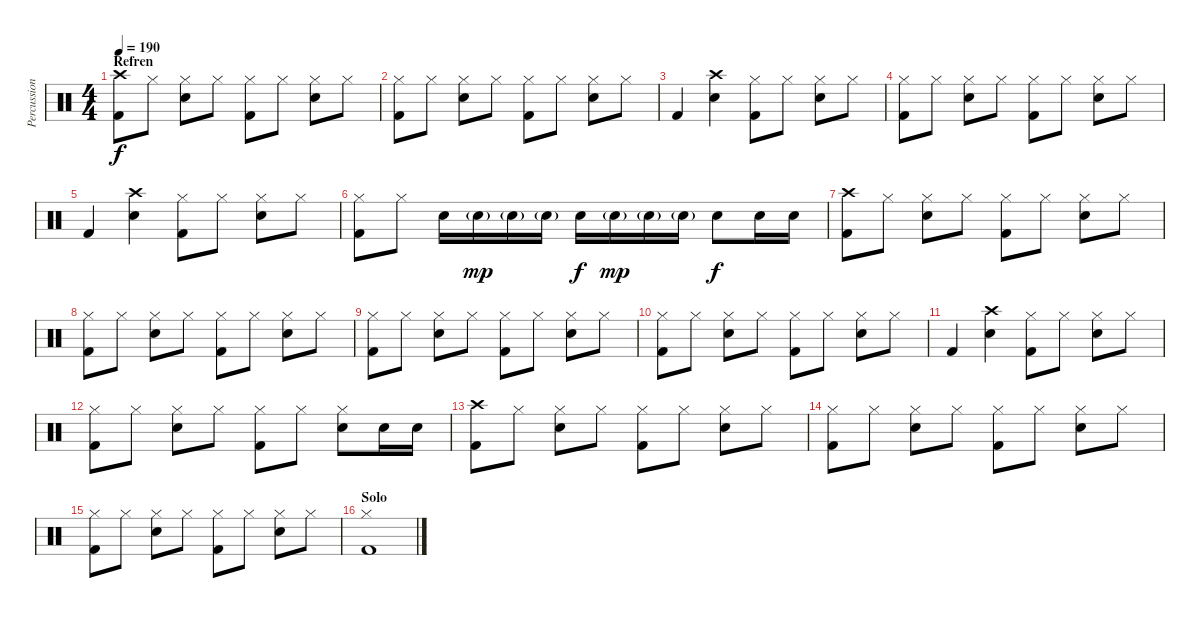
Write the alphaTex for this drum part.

\track ("Percussion" "Percussion") {instrument percussion}
\staff {score}
\articulation defaults
\ts (4 4)
\section ("" "Refren")
\tempo 190
\clef neutral
\ks c
("Crash high (hit)" "Kick (hit) 2").8{dy f} "Hi-Hat (closed)".8 ("Hi-Hat (closed)" "Electric Snare (hit)").8 "Hi-Hat (closed)".8 ("Hi-Hat (closed)" "Kick (hit) 2").8 "Hi-Hat (closed)".8 ("Hi-Hat (closed)" "Electric Snare (hit)").8 "Hi-Hat (closed)".8 |
("Hi-Hat (closed)" "Kick (hit) 2").8 "Hi-Hat (closed)".8 ("Hi-Hat (closed)" "Electric Snare (hit)").8 "Hi-Hat (closed)".8 ("Hi-Hat (closed)" "Kick (hit) 2").8 "Hi-Hat (closed)".8 ("Hi-Hat (closed)" "Electric Snare (hit)").8 "Hi-Hat (closed)".8 |
"Kick (hit) 2".4 ("Crash high (hit)" "Electric Snare (hit)").4 ("Hi-Hat (closed)" "Kick (hit) 2").8 "Hi-Hat (closed)".8 ("Hi-Hat (closed)" "Electric Snare (hit)").8 "Hi-Hat (closed)".8 |
("Hi-Hat (closed)" "Kick (hit) 2").8 "Hi-Hat (closed)".8 ("Hi-Hat (closed)" "Electric Snare (hit)").8 "Hi-Hat (closed)".8 ("Hi-Hat (closed)" "Kick (hit) 2").8 "Hi-Hat (closed)".8 ("Hi-Hat (closed)" "Electric Snare (hit)").8 "Hi-Hat (closed)".8 |
"Kick (hit) 2".4 ("Crash high (hit)" "Electric Snare (hit)").4 ("Hi-Hat (closed)" "Kick (hit) 2").8 "Hi-Hat (closed)".8 ("Hi-Hat (closed)" "Electric Snare (hit)").8 "Hi-Hat (closed)".8 |
("Hi-Hat (closed)" "Kick (hit) 2").8 "Hi-Hat (closed)".8 "Electric Snare (hit)".16 "Electric Snare (hit)"{g}.16{dy mp} "Electric Snare (hit)"{g}.16 "Electric Snare (hit)"{g}.16 "Electric Snare (hit)".16{dy f} "Electric Snare (hit)"{g}.16{dy mp} "Electric Snare (hit)"{g}.16 "Electric Snare (hit)"{g}.16 "Electric Snare (hit)".8{dy f} "Electric Snare (hit)".16 "Electric Snare (hit)".16 |
("Crash high (hit)" "Kick (hit) 2").8 "Hi-Hat (closed)".8 ("Hi-Hat (closed)" "Electric Snare (hit)").8 "Hi-Hat (closed)".8 ("Hi-Hat (closed)" "Kick (hit) 2").8 "Hi-Hat (closed)".8 ("Hi-Hat (closed)" "Electric Snare (hit)").8 "Hi-Hat (closed)".8 |
("Hi-Hat (closed)" "Kick (hit) 2").8 "Hi-Hat (closed)".8 ("Hi-Hat (closed)" "Electric Snare (hit)").8 "Hi-Hat (closed)".8 ("Hi-Hat (closed)" "Kick (hit) 2").8 "Hi-Hat (closed)".8 ("Hi-Hat (closed)" "Electric Snare (hit)").8 "Hi-Hat (closed)".8 |
("Hi-Hat (closed)" "Kick (hit) 2").8 "Hi-Hat (closed)".8 ("Hi-Hat (closed)" "Electric Snare (hit)").8 "Hi-Hat (closed)".8 ("Hi-Hat (closed)" "Kick (hit) 2").8 "Hi-Hat (closed)".8 ("Hi-Hat (closed)" "Electric Snare (hit)").8 "Hi-Hat (closed)".8 |
("Hi-Hat (closed)" "Kick (hit) 2").8 "Hi-Hat (closed)".8 ("Hi-Hat (closed)" "Electric Snare (hit)").8 "Hi-Hat (closed)".8 ("Hi-Hat (closed)" "Kick (hit) 2").8 "Hi-Hat (closed)".8 ("Hi-Hat (closed)" "Electric Snare (hit)").8 "Hi-Hat (closed)".8 |
"Kick (hit) 2".4 ("Crash high (hit)" "Electric Snare (hit)").4 ("Hi-Hat (closed)" "Kick (hit) 2").8 "Hi-Hat (closed)".8 ("Hi-Hat (closed)" "Electric Snare (hit)").8 "Hi-Hat (closed)".8 |
("Hi-Hat (closed)" "Kick (hit) 2").8 "Hi-Hat (closed)".8 ("Hi-Hat (closed)" "Electric Snare (hit)").8 "Hi-Hat (closed)".8 ("Hi-Hat (closed)" "Kick (hit) 2").8 "Hi-Hat (closed)".8 ("Hi-Hat (closed)" "Electric Snare (hit)").8 "Electric Snare (hit)".16 "Electric Snare (hit)".16 |
("Crash high (hit)" "Kick (hit) 2").8 "Hi-Hat (closed)".8 ("Hi-Hat (closed)" "Electric Snare (hit)").8 "Hi-Hat (closed)".8 ("Hi-Hat (closed)" "Kick (hit) 2").8 "Hi-Hat (closed)".8 ("Hi-Hat (closed)" "Electric Snare (hit)").8 "Hi-Hat (closed)".8 |
("Hi-Hat (closed)" "Kick (hit) 2").8 "Hi-Hat (closed)".8 ("Hi-Hat (closed)" "Electric Snare (hit)").8 "Hi-Hat (closed)".8 ("Hi-Hat (closed)" "Kick (hit) 2").8 "Hi-Hat (closed)".8 ("Hi-Hat (closed)" "Electric Snare (hit)").8 "Hi-Hat (closed)".8 |
("Hi-Hat (closed)" "Kick (hit) 2").8 "Hi-Hat (closed)".8 ("Hi-Hat (closed)" "Electric Snare (hit)").8 "Hi-Hat (closed)".8 ("Hi-Hat (closed)" "Kick (hit) 2").8 "Hi-Hat (closed)".8 ("Hi-Hat (closed)" "Electric Snare (hit)").8 "Hi-Hat (closed)".8 |
\section ("" "Solo")
("Hi-Hat (closed)" "Kick (hit) 2").1
